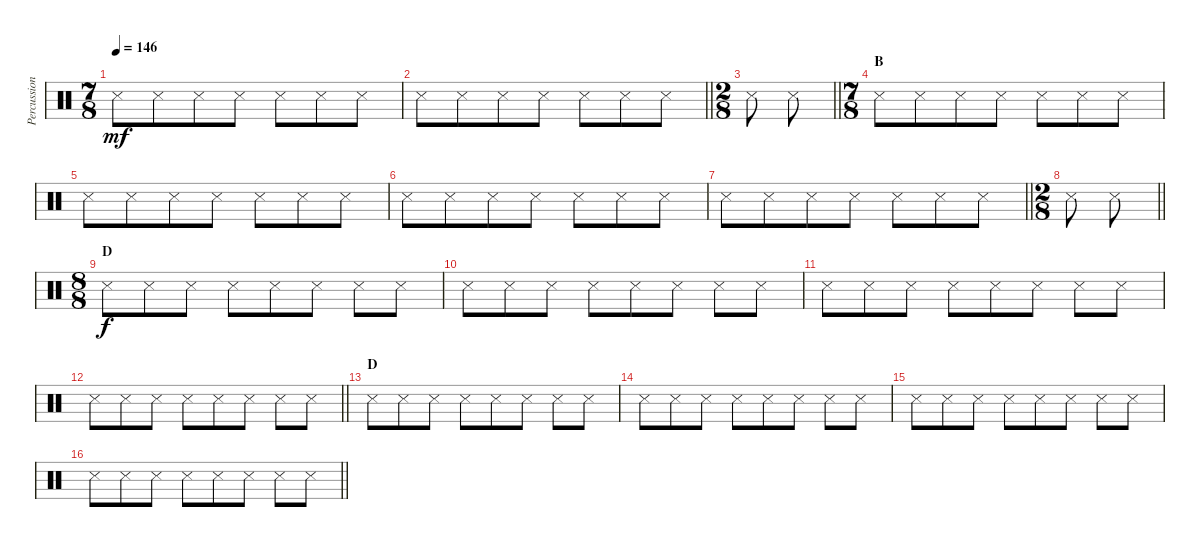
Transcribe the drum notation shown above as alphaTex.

\track ("Percussion" "Percussion") {instrument percussion}
\staff {score}
\articulation defaults
\ts (7 8)
\tempo 146
\clef neutral
\ks c "Metronome (hit)".8{dy mf} "Metronome (hit)".8 "Metronome (hit)".8 "Metronome (hit)".8 "Metronome (hit)".8 "Metronome (hit)".8 "Metronome (hit)".8
|
\barLineRight lightlight "Metronome (hit)".8 "Metronome (hit)".8 "Metronome (hit)".8 "Metronome (hit)".8 "Metronome (hit)".8 "Metronome (hit)".8 "Metronome (hit)".8
|
\ts (2 8)
\barLineRight lightlight "Metronome (hit)".8 "Metronome (hit)".8
|
\ts (7 8)
\section ("" "B")
"Metronome (hit)".8 "Metronome (hit)".8 "Metronome (hit)".8 "Metronome (hit)".8 "Metronome (hit)".8 "Metronome (hit)".8 "Metronome (hit)".8 |
"Metronome (hit)".8 "Metronome (hit)".8 "Metronome (hit)".8 "Metronome (hit)".8 "Metronome (hit)".8 "Metronome (hit)".8 "Metronome (hit)".8 |
"Metronome (hit)".8 "Metronome (hit)".8 "Metronome (hit)".8 "Metronome (hit)".8 "Metronome (hit)".8 "Metronome (hit)".8 "Metronome (hit)".8 |
\barLineRight lightlight "Metronome (hit)".8 "Metronome (hit)".8 "Metronome (hit)".8 "Metronome (hit)".8 "Metronome (hit)".8 "Metronome (hit)".8 "Metronome (hit)".8
|
\ts (2 8)
\barLineRight lightlight "Metronome (hit)".8 "Metronome (hit)".8
|
\ts (8 8)
\section ("" "D")
"Metronome (hit)".8{dy f} "Metronome (hit)".8 "Metronome (hit)".8 "Metronome (hit)".8 "Metronome (hit)".8 "Metronome (hit)".8 "Metronome (hit)".8 "Metronome (hit)".8 |
"Metronome (hit)".8 "Metronome (hit)".8 "Metronome (hit)".8 "Metronome (hit)".8 "Metronome (hit)".8 "Metronome (hit)".8 "Metronome (hit)".8 "Metronome (hit)".8 |
"Metronome (hit)".8 "Metronome (hit)".8 "Metronome (hit)".8 "Metronome (hit)".8 "Metronome (hit)".8 "Metronome (hit)".8 "Metronome (hit)".8 "Metronome (hit)".8 |
\barLineRight lightlight "Metronome (hit)".8 "Metronome (hit)".8 "Metronome (hit)".8 "Metronome (hit)".8 "Metronome (hit)".8 "Metronome (hit)".8 "Metronome (hit)".8 "Metronome (hit)".8
|
\section ("" "D")
"Metronome (hit)".8 "Metronome (hit)".8 "Metronome (hit)".8 "Metronome (hit)".8 "Metronome (hit)".8 "Metronome (hit)".8 "Metronome (hit)".8 "Metronome (hit)".8 |
"Metronome (hit)".8 "Metronome (hit)".8 "Metronome (hit)".8 "Metronome (hit)".8 "Metronome (hit)".8 "Metronome (hit)".8 "Metronome (hit)".8 "Metronome (hit)".8 |
"Metronome (hit)".8 "Metronome (hit)".8 "Metronome (hit)".8 "Metronome (hit)".8 "Metronome (hit)".8 "Metronome (hit)".8 "Metronome (hit)".8 "Metronome (hit)".8 |
\barLineRight lightlight "Metronome (hit)".8 "Metronome (hit)".8 "Metronome (hit)".8 "Metronome (hit)".8 "Metronome (hit)".8 "Metronome (hit)".8 "Metronome (hit)".8 "Metronome (hit)".8
